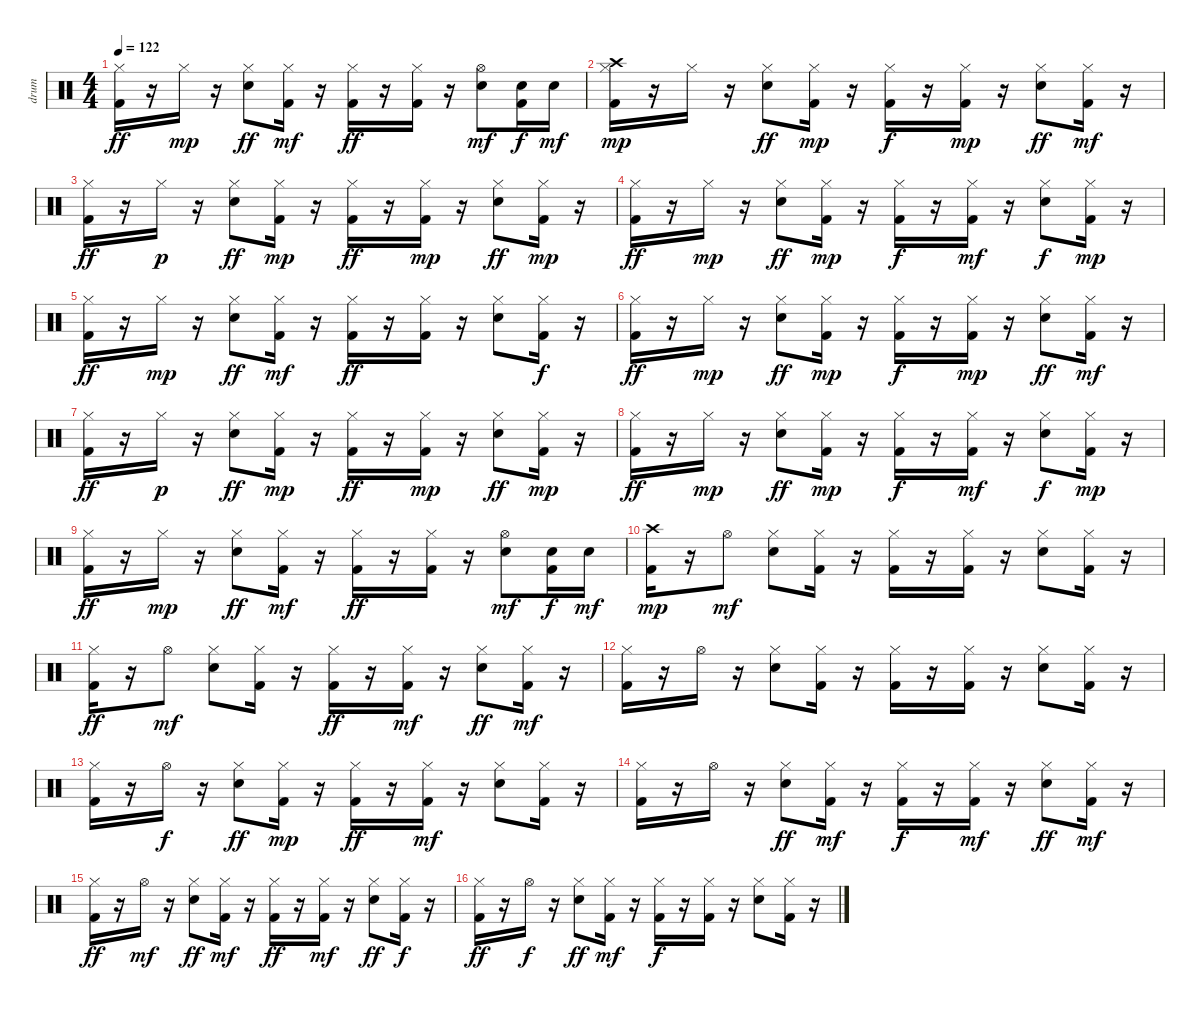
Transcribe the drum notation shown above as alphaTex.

\track ("drum" "drum") {instrument percussion}
\staff {score}
\articulation defaults
\ts (4 4)
\tempo 122
\clef neutral
\ks c
("Kick (hit) 2" "Hi-Hat (closed)").16{dy ff} r.16 "Hi-Hat (closed)".16{dy mp} r.16 ("Electric Snare (hit)" "Hi-Hat (closed)").8{dy ff} ("Kick (hit) 2" "Hi-Hat (closed)").16{dy mf} r.16 ("Kick (hit) 2" "Hi-Hat (closed)").16{dy ff} r.16 ("Kick (hit) 2" "Hi-Hat (closed)").16 r.16 ("Electric Snare (hit)" "Hi-Hat (open)").8{dy mf} ("Electric Snare (hit)" "Kick (hit) 2").16{dy f} "Electric Snare (hit)".16{dy mf} |
("Kick (hit) 2" "Hi-Hat (closed)" "Crash high (hit)").16{dy mp} r.16 "Hi-Hat (closed)".16 r.16 ("Electric Snare (hit)" "Hi-Hat (closed)").8{dy ff} ("Kick (hit) 2" "Hi-Hat (closed)").16{dy mp} r.16 ("Kick (hit) 2" "Hi-Hat (closed)").16{dy f} r.16 ("Kick (hit) 2" "Hi-Hat (closed)").16{dy mp} r.16 ("Electric Snare (hit)" "Hi-Hat (closed)").8{dy ff} ("Kick (hit) 2" "Hi-Hat (closed)").16{dy mf} r.16 |
("Kick (hit) 2" "Hi-Hat (closed)").16{dy ff} r.16 "Hi-Hat (closed)".16{dy p} r.16 ("Electric Snare (hit)" "Hi-Hat (closed)").8{dy ff} ("Kick (hit) 2" "Hi-Hat (closed)").16{dy mp} r.16 ("Kick (hit) 2" "Hi-Hat (closed)").16{dy ff} r.16 ("Kick (hit) 2" "Hi-Hat (closed)").16{dy mp} r.16 ("Electric Snare (hit)" "Hi-Hat (closed)").8{dy ff} ("Kick (hit) 2" "Hi-Hat (closed)").16{dy mp} r.16 |
("Kick (hit) 2" "Hi-Hat (closed)").16{dy ff} r.16 "Hi-Hat (closed)".16{dy mp} r.16 ("Electric Snare (hit)" "Hi-Hat (closed)").8{dy ff} ("Kick (hit) 2" "Hi-Hat (closed)").16{dy mp} r.16 ("Kick (hit) 2" "Hi-Hat (closed)").16{dy f} r.16 ("Kick (hit) 2" "Hi-Hat (closed)").16{dy mf} r.16 ("Electric Snare (hit)" "Hi-Hat (closed)").8{dy f} ("Kick (hit) 2" "Hi-Hat (closed)").16{dy mp} r.16 |
("Kick (hit) 2" "Hi-Hat (closed)").16{dy ff} r.16 "Hi-Hat (closed)".16{dy mp} r.16 ("Electric Snare (hit)" "Hi-Hat (closed)").8{dy ff} ("Kick (hit) 2" "Hi-Hat (closed)").16{dy mf} r.16 ("Kick (hit) 2" "Hi-Hat (closed)").16{dy ff} r.16 ("Kick (hit) 2" "Hi-Hat (closed)").16 r.16 ("Electric Snare (hit)" "Hi-Hat (closed)").8 ("Kick (hit) 2" "Hi-Hat (closed)").16{dy f} r.16 |
("Kick (hit) 2" "Hi-Hat (closed)").16{dy ff} r.16 "Hi-Hat (closed)".16{dy mp} r.16 ("Electric Snare (hit)" "Hi-Hat (closed)").8{dy ff} ("Kick (hit) 2" "Hi-Hat (closed)").16{dy mp} r.16 ("Kick (hit) 2" "Hi-Hat (closed)").16{dy f} r.16 ("Kick (hit) 2" "Hi-Hat (closed)").16{dy mp} r.16 ("Electric Snare (hit)" "Hi-Hat (closed)").8{dy ff} ("Kick (hit) 2" "Hi-Hat (closed)").16{dy mf} r.16 |
("Kick (hit) 2" "Hi-Hat (closed)").16{dy ff} r.16 "Hi-Hat (closed)".16{dy p} r.16 ("Electric Snare (hit)" "Hi-Hat (closed)").8{dy ff} ("Kick (hit) 2" "Hi-Hat (closed)").16{dy mp} r.16 ("Kick (hit) 2" "Hi-Hat (closed)").16{dy ff} r.16 ("Kick (hit) 2" "Hi-Hat (closed)").16{dy mp} r.16 ("Electric Snare (hit)" "Hi-Hat (closed)").8{dy ff} ("Kick (hit) 2" "Hi-Hat (closed)").16{dy mp} r.16 |
("Kick (hit) 2" "Hi-Hat (closed)").16{dy ff} r.16 "Hi-Hat (closed)".16{dy mp} r.16 ("Electric Snare (hit)" "Hi-Hat (closed)").8{dy ff} ("Kick (hit) 2" "Hi-Hat (closed)").16{dy mp} r.16 ("Kick (hit) 2" "Hi-Hat (closed)").16{dy f} r.16 ("Kick (hit) 2" "Hi-Hat (closed)").16{dy mf} r.16 ("Electric Snare (hit)" "Hi-Hat (closed)").8{dy f} ("Kick (hit) 2" "Hi-Hat (closed)").16{dy mp} r.16 |
("Kick (hit) 2" "Hi-Hat (closed)").16{dy ff} r.16 "Hi-Hat (closed)".16{dy mp} r.16 ("Electric Snare (hit)" "Hi-Hat (closed)").8{dy ff} ("Kick (hit) 2" "Hi-Hat (closed)").16{dy mf} r.16 ("Kick (hit) 2" "Hi-Hat (closed)").16{dy ff} r.16 ("Kick (hit) 2" "Hi-Hat (closed)").16 r.16 ("Electric Snare (hit)" "Hi-Hat (open)").8{dy mf} ("Electric Snare (hit)" "Kick (hit) 2").16{dy f} "Electric Snare (hit)".16{dy mf} |
("Kick (hit) 2" "Crash high (hit)").16{dy mp} r.16 "Hi-Hat (open)".8{dy mf} ("Electric Snare (hit)" "Hi-Hat (closed)").8 ("Kick (hit) 2" "Hi-Hat (closed)").16 r.16 ("Kick (hit) 2" "Hi-Hat (closed)").16 r.16 ("Kick (hit) 2" "Hi-Hat (closed)").16 r.16 ("Electric Snare (hit)" "Hi-Hat (closed)").8 ("Kick (hit) 2" "Hi-Hat (closed)").16 r.16 |
("Kick (hit) 2" "Hi-Hat (closed)").16{dy ff} r.16 "Hi-Hat (open)".8{dy mf} ("Electric Snare (hit)" "Hi-Hat (closed)").8 ("Kick (hit) 2" "Hi-Hat (closed)").16 r.16 ("Kick (hit) 2" "Hi-Hat (closed)").16{dy ff} r.16 ("Kick (hit) 2" "Hi-Hat (closed)").16{dy mf} r.16 ("Electric Snare (hit)" "Hi-Hat (closed)").8{dy ff} ("Kick (hit) 2" "Hi-Hat (closed)").16{dy mf} r.16 |
("Kick (hit) 2" "Hi-Hat (closed)").16 r.16 "Hi-Hat (open)".16 r.16 ("Electric Snare (hit)" "Hi-Hat (closed)").8 ("Kick (hit) 2" "Hi-Hat (closed)").16 r.16 ("Kick (hit) 2" "Hi-Hat (closed)").16 r.16 ("Kick (hit) 2" "Hi-Hat (closed)").16 r.16 ("Electric Snare (hit)" "Hi-Hat (closed)").8 ("Kick (hit) 2" "Hi-Hat (closed)").16 r.16 |
("Kick (hit) 2" "Hi-Hat (closed)").16 r.16 "Hi-Hat (open)".16{dy f} r.16 ("Electric Snare (hit)" "Hi-Hat (closed)").8{dy ff} ("Kick (hit) 2" "Hi-Hat (closed)").16{dy mp} r.16 ("Kick (hit) 2" "Hi-Hat (closed)").16{dy ff} r.16 ("Kick (hit) 2" "Hi-Hat (closed)").16{dy mf} r.16 ("Electric Snare (hit)" "Hi-Hat (closed)").8 ("Kick (hit) 2" "Hi-Hat (closed)").16 r.16 |
("Kick (hit) 2" "Hi-Hat (closed)").16 r.16 "Hi-Hat (open)".16 r.16 ("Electric Snare (hit)" "Hi-Hat (closed)").8{dy ff} ("Kick (hit) 2" "Hi-Hat (closed)").16{dy mf} r.16 ("Kick (hit) 2" "Hi-Hat (closed)").16{dy f} r.16 ("Kick (hit) 2" "Hi-Hat (closed)").16{dy mf} r.16 ("Electric Snare (hit)" "Hi-Hat (closed)").8{dy ff} ("Kick (hit) 2" "Hi-Hat (closed)").16{dy mf} r.16 |
("Kick (hit) 2" "Hi-Hat (closed)").16{dy ff} r.16 "Hi-Hat (open)".16{dy mf} r.16 ("Electric Snare (hit)" "Hi-Hat (closed)").8{dy ff} ("Kick (hit) 2" "Hi-Hat (closed)").16{dy mf} r.16 ("Kick (hit) 2" "Hi-Hat (closed)").16{dy ff} r.16 ("Kick (hit) 2" "Hi-Hat (closed)").16{dy mf} r.16 ("Electric Snare (hit)" "Hi-Hat (closed)").8{dy ff} ("Kick (hit) 2" "Hi-Hat (closed)").16{dy f} r.16 |
("Kick (hit) 2" "Hi-Hat (closed)").16{dy ff} r.16 "Hi-Hat (open)".16{dy f} r.16 ("Electric Snare (hit)" "Hi-Hat (closed)").8{dy ff} ("Kick (hit) 2" "Hi-Hat (closed)").16{dy mf} r.16 ("Kick (hit) 2" "Hi-Hat (closed)").16{dy f} r.16 ("Kick (hit) 2" "Hi-Hat (closed)").16 r.16 ("Electric Snare (hit)" "Hi-Hat (closed)").8 ("Kick (hit) 2" "Hi-Hat (closed)").16 r.16
